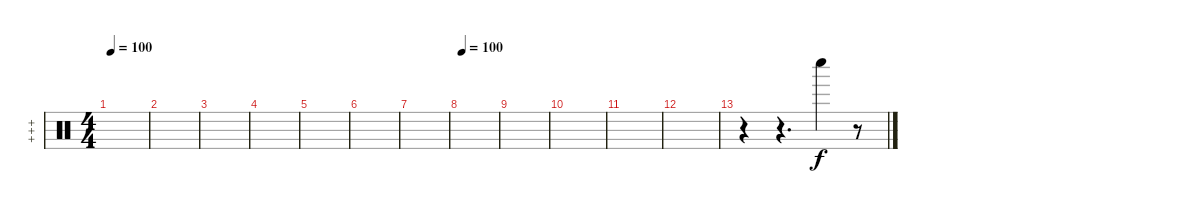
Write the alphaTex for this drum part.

\track ("+++" "+++") {instrument percussion}
\staff {score}
\articulation defaults
\ts (4 4)
\tempo 100
\clef neutral
\ks aminor
|
|
|
|
|
|
|
\tempo 100
|
|
|
|
|
r.4 r.4{d} "Whistle low (hit)".4 r.8
